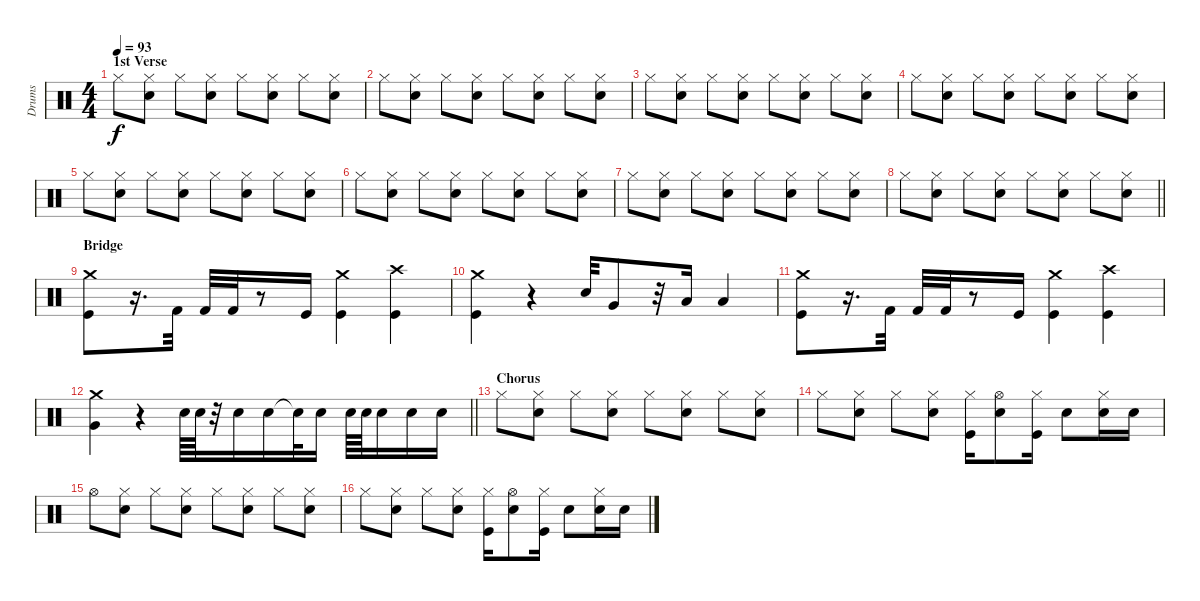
\track ("Drums" "Drums") {instrument percussion}
\staff {score}
\articulation defaults
\ts (4 4)
\section ("" "1st Verse")
\tempo 93
\clef neutral
\ks c "Hi-Hat (closed)".8{dy f}
("Hi-Hat (closed)" "Snare (hit) 2").8 "Hi-Hat (closed)".8 ("Hi-Hat (closed)" "Snare (hit) 2").8 "Hi-Hat (closed)".8 ("Hi-Hat (closed)" "Snare (hit) 2").8 "Hi-Hat (closed)".8 ("Hi-Hat (closed)" "Snare (hit) 2").8 |
"Hi-Hat (closed)".8 ("Hi-Hat (closed)" "Snare (hit) 2").8 "Hi-Hat (closed)".8 ("Hi-Hat (closed)" "Snare (hit) 2").8 "Hi-Hat (closed)".8 ("Hi-Hat (closed)" "Snare (hit) 2").8 "Hi-Hat (closed)".8 ("Hi-Hat (closed)" "Snare (hit) 2").8 |
"Hi-Hat (closed)".8 ("Hi-Hat (closed)" "Snare (hit) 2").8 "Hi-Hat (closed)".8 ("Hi-Hat (closed)" "Snare (hit) 2").8 "Hi-Hat (closed)".8 ("Hi-Hat (closed)" "Snare (hit) 2").8 "Hi-Hat (closed)".8 ("Hi-Hat (closed)" "Snare (hit) 2").8 |
"Hi-Hat (closed)".8 ("Hi-Hat (closed)" "Snare (hit) 2").8 "Hi-Hat (closed)".8 ("Hi-Hat (closed)" "Snare (hit) 2").8 "Hi-Hat (closed)".8 ("Hi-Hat (closed)" "Snare (hit) 2").8 "Hi-Hat (closed)".8 ("Hi-Hat (closed)" "Snare (hit) 2").8 |
"Hi-Hat (closed)".8 ("Hi-Hat (closed)" "Snare (hit) 2").8 "Hi-Hat (closed)".8 ("Hi-Hat (closed)" "Snare (hit) 2").8 "Hi-Hat (closed)".8 ("Hi-Hat (closed)" "Snare (hit) 2").8 "Hi-Hat (closed)".8 ("Hi-Hat (closed)" "Snare (hit) 2").8 |
"Hi-Hat (closed)".8 ("Hi-Hat (closed)" "Snare (hit) 2").8 "Hi-Hat (closed)".8 ("Hi-Hat (closed)" "Snare (hit) 2").8 "Hi-Hat (closed)".8 ("Hi-Hat (closed)" "Snare (hit) 2").8 "Hi-Hat (closed)".8 ("Hi-Hat (closed)" "Snare (hit) 2").8 |
"Hi-Hat (closed)".8 ("Hi-Hat (closed)" "Snare (hit) 2").8 "Hi-Hat (closed)".8 ("Hi-Hat (closed)" "Snare (hit) 2").8 "Hi-Hat (closed)".8 ("Hi-Hat (closed)" "Snare (hit) 2").8 "Hi-Hat (closed)".8 ("Hi-Hat (closed)" "Snare (hit) 2").8 |
\barLineRight lightlight "Hi-Hat (closed)".8
("Hi-Hat (closed)" "Snare (hit) 2").8 "Hi-Hat (closed)".8 ("Hi-Hat (closed)" "Snare (hit) 2").8 "Hi-Hat (closed)".8 ("Hi-Hat (closed)" "Snare (hit) 2").8 "Hi-Hat (closed)".8 ("Hi-Hat (closed)" "Snare (hit) 2").8 |
\section ("" "Bridge")
("Kick (hit)" "Crash medium (hit)").8 r.16{d} "Kick (hit) 2".32 "Kick (hit) 2".32 "Kick (hit) 2".32 r.8 "Kick (hit)".16 ("Kick (hit)" "Crash medium (hit)").4 ("Kick (hit)" "Crash high (hit)").4 |
("Kick (hit)" "Crash medium (hit)").4 r.4 "Snare (hit) 2".32 "Very Low Tom (hit)".8 r.32 "Low Tom (hit)".16 "Low Floor Tom (hit)".4 |
("Kick (hit)" "Crash medium (hit)").8 r.16{d} "Kick (hit) 2".32 "Kick (hit) 2".32 "Kick (hit) 2".32 r.8 "Kick (hit)".16 ("Kick (hit)" "Crash medium (hit)").4 ("Kick (hit)" "Crash high (hit)").4 |
\barLineRight lightlight
("Crash medium (hit)" "Very Low Tom (hit)").4 r.4 "Electric Snare (hit)".64 "Electric Snare (hit)".64 r.32 "Electric Snare (hit)".16 "Electric Snare (hit)".16 "Snare (hit)"{t}.32 "Electric Snare (hit)".16 "Electric Snare (hit)".64 "Electric Snare (hit)".64 "Electric Snare (hit)".16 "Electric Snare (hit)".16 "Electric Snare (hit)".16 |
\section ("" "Chorus")
"Hi-Hat (closed)".8 ("Hi-Hat (closed)" "Snare (hit) 2").8 "Hi-Hat (closed)".8 ("Hi-Hat (closed)" "Snare (hit) 2").8 "Hi-Hat (closed)".8 ("Hi-Hat (closed)" "Snare (hit) 2").8 "Hi-Hat (closed)".8 ("Hi-Hat (closed)" "Snare (hit) 2").8 |
"Hi-Hat (closed)".8 ("Hi-Hat (closed)" "Snare (hit) 2").8 "Hi-Hat (closed)".8 ("Hi-Hat (closed)" "Snare (hit) 2").8 ("Hi-Hat (closed)" "Kick (hit)").16 ("Hi-Hat (open)" "Electric Snare (hit)").8 ("Hi-Hat (closed)" "Kick (hit)").16 "Electric Snare (hit)".8 ("Hi-Hat (closed)" "Electric Snare (hit)").16 "Electric Snare (hit)".16 |
"Hi-Hat (open)".8 ("Hi-Hat (closed)" "Snare (hit) 2").8 "Hi-Hat (closed)".8 ("Hi-Hat (closed)" "Snare (hit) 2").8 "Hi-Hat (closed)".8 ("Hi-Hat (closed)" "Snare (hit) 2").8 "Hi-Hat (closed)".8 ("Hi-Hat (closed)" "Snare (hit) 2").8 |
"Hi-Hat (closed)".8 ("Hi-Hat (closed)" "Snare (hit) 2").8 "Hi-Hat (closed)".8 ("Hi-Hat (closed)" "Snare (hit) 2").8 ("Hi-Hat (closed)" "Kick (hit)").16 ("Hi-Hat (open)" "Electric Snare (hit)").8 ("Hi-Hat (closed)" "Kick (hit)").16 "Electric Snare (hit)".8 ("Hi-Hat (closed)" "Electric Snare (hit)").16 "Electric Snare (hit)".16
